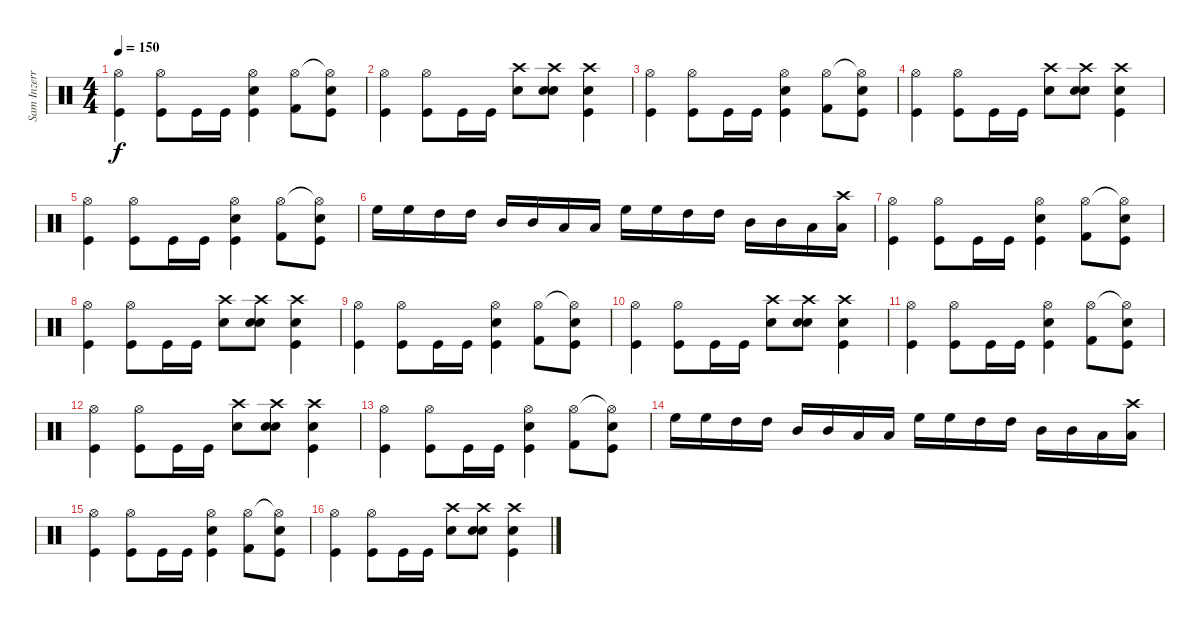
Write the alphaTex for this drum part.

\track ("Sam Inzerra(Percusión)" "Sam Inzerr") {instrument percussion}
\staff {score}
\articulation defaults
\ts (4 4)
\tempo 150
\clef neutral
\ks c
("Hi-Hat (open)" "Kick (hit)").4{dy f} ("Hi-Hat (open)" "Kick (hit)").8 "Kick (hit)".16 "Kick (hit)".16 ("Hi-Hat (open)" "Electric Snare (hit)" "Kick (hit)").4 ("Hi-Hat (open)" "Kick (hit) 2").8 ("Hi-Hat (open)"{t} "Electric Snare (hit)" "Kick (hit)").8 |
("Hi-Hat (open)" "Kick (hit)").4 ("Hi-Hat (open)" "Kick (hit)").8 "Kick (hit)".16 "Kick (hit)".16 ("Crash high (hit)" "Electric Snare (hit)").8 ("Crash high (hit)" "Electric Snare (hit)" "Electric Snare (hit)").8 ("Crash high (hit)" "Electric Snare (hit)" "Kick (hit)").4 |
("Hi-Hat (open)" "Kick (hit)").4 ("Hi-Hat (open)" "Kick (hit)").8 "Kick (hit)".16 "Kick (hit)".16 ("Hi-Hat (open)" "Electric Snare (hit)" "Kick (hit)").4 ("Hi-Hat (open)" "Kick (hit) 2").8 ("Hi-Hat (open)"{t} "Electric Snare (hit)" "Kick (hit)").8 |
("Hi-Hat (open)" "Kick (hit)").4 ("Hi-Hat (open)" "Kick (hit)").8 "Kick (hit)".16 "Kick (hit)".16 ("Crash high (hit)" "Electric Snare (hit)").8 ("Crash high (hit)" "Electric Snare (hit)" "Electric Snare (hit)").8 ("Crash high (hit)" "Electric Snare (hit)" "Kick (hit)").4 |
("Hi-Hat (open)" "Kick (hit)").4 ("Hi-Hat (open)" "Kick (hit)").8 "Kick (hit)".16 "Kick (hit)".16 ("Hi-Hat (open)" "Electric Snare (hit)" "Kick (hit)").4 ("Hi-Hat (open)" "Kick (hit) 2").8 ("Hi-Hat (open)"{t} "Electric Snare (hit)" "Kick (hit)").8 |
"High Floor Tom (hit)".16 "High Floor Tom (hit)".16 "High Tom (hit)".16 "High Tom (hit)".16 "Mid Tom (hit)".16 "Mid Tom (hit)".16 "Low Tom (hit)".16 "Low Tom (hit)".16 "High Floor Tom (hit)".16 "High Floor Tom (hit)".16 "High Tom (hit)".16 "High Tom (hit)".16 "Mid Tom (hit)".16 "Mid Tom (hit)".16 "Low Tom (hit)".16 ("Crash high (hit)" "Low Tom (hit)").16 |
("Hi-Hat (open)" "Kick (hit)").4 ("Hi-Hat (open)" "Kick (hit)").8 "Kick (hit)".16 "Kick (hit)".16 ("Hi-Hat (open)" "Electric Snare (hit)" "Kick (hit)").4 ("Hi-Hat (open)" "Kick (hit) 2").8 ("Hi-Hat (open)"{t} "Electric Snare (hit)" "Kick (hit)").8 |
("Hi-Hat (open)" "Kick (hit)").4 ("Hi-Hat (open)" "Kick (hit)").8 "Kick (hit)".16 "Kick (hit)".16 ("Crash high (hit)" "Electric Snare (hit)").8 ("Crash high (hit)" "Electric Snare (hit)" "Electric Snare (hit)").8 ("Crash high (hit)" "Electric Snare (hit)" "Kick (hit)").4 |
("Hi-Hat (open)" "Kick (hit)").4 ("Hi-Hat (open)" "Kick (hit)").8 "Kick (hit)".16 "Kick (hit)".16 ("Hi-Hat (open)" "Electric Snare (hit)" "Kick (hit)").4 ("Hi-Hat (open)" "Kick (hit) 2").8 ("Hi-Hat (open)"{t} "Electric Snare (hit)" "Kick (hit)").8 |
("Hi-Hat (open)" "Kick (hit)").4 ("Hi-Hat (open)" "Kick (hit)").8 "Kick (hit)".16 "Kick (hit)".16 ("Crash high (hit)" "Electric Snare (hit)").8 ("Crash high (hit)" "Electric Snare (hit)" "Electric Snare (hit)").8 ("Crash high (hit)" "Electric Snare (hit)" "Kick (hit)").4 |
("Hi-Hat (open)" "Kick (hit)").4 ("Hi-Hat (open)" "Kick (hit)").8 "Kick (hit)".16 "Kick (hit)".16 ("Hi-Hat (open)" "Electric Snare (hit)" "Kick (hit)").4 ("Hi-Hat (open)" "Kick (hit) 2").8 ("Hi-Hat (open)"{t} "Electric Snare (hit)" "Kick (hit)").8 |
("Hi-Hat (open)" "Kick (hit)").4 ("Hi-Hat (open)" "Kick (hit)").8 "Kick (hit)".16 "Kick (hit)".16 ("Crash high (hit)" "Electric Snare (hit)").8 ("Crash high (hit)" "Electric Snare (hit)" "Electric Snare (hit)").8 ("Crash high (hit)" "Electric Snare (hit)" "Kick (hit)").4 |
("Hi-Hat (open)" "Kick (hit)").4 ("Hi-Hat (open)" "Kick (hit)").8 "Kick (hit)".16 "Kick (hit)".16 ("Hi-Hat (open)" "Electric Snare (hit)" "Kick (hit)").4 ("Hi-Hat (open)" "Kick (hit) 2").8 ("Hi-Hat (open)"{t} "Electric Snare (hit)" "Kick (hit)").8 |
"High Floor Tom (hit)".16 "High Floor Tom (hit)".16 "High Tom (hit)".16 "High Tom (hit)".16 "Mid Tom (hit)".16 "Mid Tom (hit)".16 "Low Tom (hit)".16 "Low Tom (hit)".16 "High Floor Tom (hit)".16 "High Floor Tom (hit)".16 "High Tom (hit)".16 "High Tom (hit)".16 "Mid Tom (hit)".16 "Mid Tom (hit)".16 "Low Tom (hit)".16 ("Crash high (hit)" "Low Tom (hit)").16 |
("Hi-Hat (open)" "Kick (hit)").4 ("Hi-Hat (open)" "Kick (hit)").8 "Kick (hit)".16 "Kick (hit)".16 ("Hi-Hat (open)" "Electric Snare (hit)" "Kick (hit)").4 ("Hi-Hat (open)" "Kick (hit) 2").8 ("Hi-Hat (open)"{t} "Electric Snare (hit)" "Kick (hit)").8 |
("Hi-Hat (open)" "Kick (hit)").4 ("Hi-Hat (open)" "Kick (hit)").8 "Kick (hit)".16 "Kick (hit)".16 ("Crash high (hit)" "Electric Snare (hit)").8 ("Crash high (hit)" "Electric Snare (hit)" "Electric Snare (hit)").8 ("Crash high (hit)" "Electric Snare (hit)" "Kick (hit)").4
